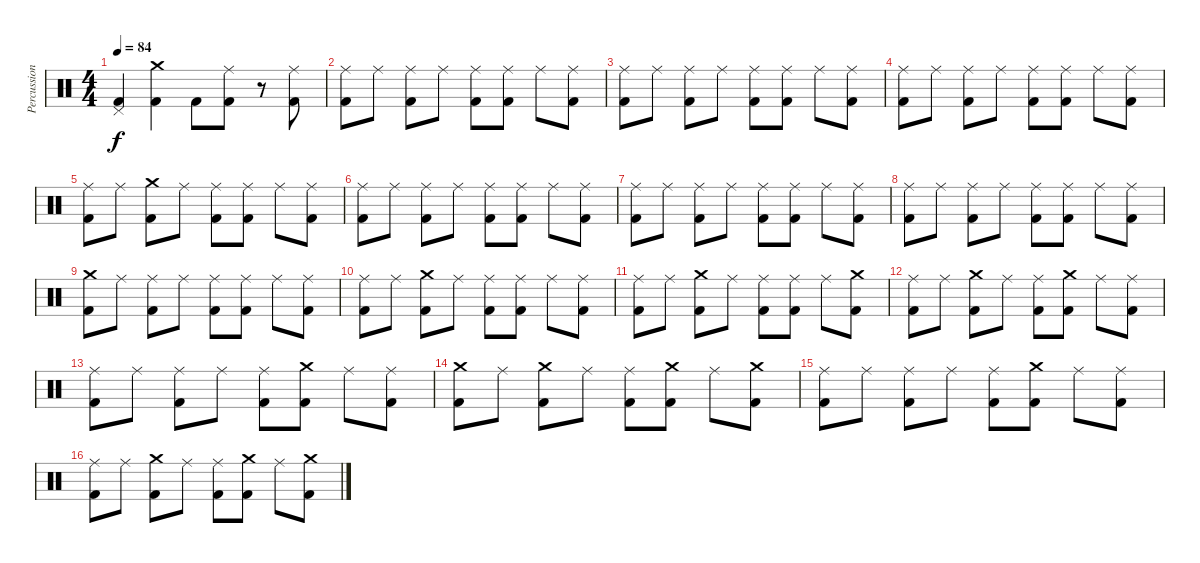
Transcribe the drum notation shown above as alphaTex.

\track ("Percussion" "Percussion") {instrument percussion}
\staff {score}
\articulation defaults
\ts (4 4)
\tempo 84
\clef neutral
\ks c
("Pedal Hi-Hat (hit)" "Kick (hit) 2").4{dy f} ("Crash medium (hit)" "Kick (hit) 2").4 "Kick (hit) 2".8 ("Ride (middle)" "Kick (hit) 2").8 r.8 ("Ride (middle)" "Kick (hit) 2").8 |
("Ride (middle)" "Kick (hit) 2").8 "Ride (middle)".8 ("Ride (middle)" "Kick (hit) 2").8 "Ride (middle)".8 ("Ride (middle)" "Kick (hit) 2").8 ("Ride (middle)" "Kick (hit) 2").8 "Ride (middle)".8 ("Ride (middle)" "Kick (hit) 2").8 |
("Ride (middle)" "Kick (hit) 2").8 "Ride (middle)".8 ("Ride (middle)" "Kick (hit) 2").8 "Ride (middle)".8 ("Ride (middle)" "Kick (hit) 2").8 ("Ride (middle)" "Kick (hit) 2").8 "Ride (middle)".8 ("Ride (middle)" "Kick (hit) 2").8 |
("Ride (middle)" "Kick (hit) 2").8 "Ride (middle)".8 ("Ride (middle)" "Kick (hit) 2").8 "Ride (middle)".8 ("Ride (middle)" "Kick (hit) 2").8 ("Ride (middle)" "Kick (hit) 2").8 "Ride (middle)".8 ("Ride (middle)" "Kick (hit) 2").8 |
("Ride (middle)" "Kick (hit) 2").8 "Ride (middle)".8 ("Crash medium (hit)" "Kick (hit) 2").8 "Ride (middle)".8 ("Ride (middle)" "Kick (hit) 2").8 ("Ride (middle)" "Kick (hit) 2").8 "Ride (middle)".8 ("Ride (middle)" "Kick (hit) 2").8 |
("Ride (middle)" "Kick (hit) 2").8 "Ride (middle)".8 ("Ride (middle)" "Kick (hit) 2").8 "Ride (middle)".8 ("Ride (middle)" "Kick (hit) 2").8 ("Ride (middle)" "Kick (hit) 2").8 "Ride (middle)".8 ("Ride (middle)" "Kick (hit) 2").8 |
("Ride (middle)" "Kick (hit) 2").8 "Ride (middle)".8 ("Ride (middle)" "Kick (hit) 2").8 "Ride (middle)".8 ("Ride (middle)" "Kick (hit) 2").8 ("Ride (middle)" "Kick (hit) 2").8 "Ride (middle)".8 ("Ride (middle)" "Kick (hit) 2").8 |
("Ride (middle)" "Kick (hit) 2").8 "Ride (middle)".8 ("Ride (middle)" "Kick (hit) 2").8 "Ride (middle)".8 ("Ride (middle)" "Kick (hit) 2").8 ("Ride (middle)" "Kick (hit) 2").8 "Ride (middle)".8 ("Ride (middle)" "Kick (hit) 2").8 |
("Crash medium (hit)" "Kick (hit) 2").8 "Ride (middle)".8 ("Ride (middle)" "Kick (hit) 2").8 "Ride (middle)".8 ("Ride (middle)" "Kick (hit) 2").8 ("Ride (middle)" "Kick (hit) 2").8 "Ride (middle)".8 ("Ride (middle)" "Kick (hit) 2").8 |
("Ride (middle)" "Kick (hit) 2").8 "Ride (middle)".8 ("Crash medium (hit)" "Kick (hit) 2").8 "Ride (middle)".8 ("Ride (middle)" "Kick (hit) 2").8 ("Ride (middle)" "Kick (hit) 2").8 "Ride (middle)".8 ("Ride (middle)" "Kick (hit) 2").8 |
("Ride (middle)" "Kick (hit) 2").8 "Ride (middle)".8 ("Crash medium (hit)" "Kick (hit) 2").8 "Ride (middle)".8 ("Ride (middle)" "Kick (hit) 2").8 ("Ride (middle)" "Kick (hit) 2").8 "Ride (middle)".8 ("Crash medium (hit)" "Kick (hit) 2").8 |
("Ride (middle)" "Kick (hit) 2").8 "Ride (middle)".8 ("Crash medium (hit)" "Kick (hit) 2").8 "Ride (middle)".8 ("Ride (middle)" "Kick (hit) 2").8 ("Crash medium (hit)" "Kick (hit) 2").8 "Ride (middle)".8 ("Ride (middle)" "Kick (hit) 2").8 |
("Ride (middle)" "Kick (hit) 2").8 "Ride (middle)".8 ("Ride (middle)" "Kick (hit) 2").8 "Ride (middle)".8 ("Ride (middle)" "Kick (hit) 2").8 ("Crash medium (hit)" "Kick (hit) 2").8 "Ride (middle)".8 ("Ride (middle)" "Kick (hit) 2").8 |
("Crash medium (hit)" "Kick (hit) 2").8 "Ride (middle)".8 ("Crash medium (hit)" "Kick (hit) 2").8 "Ride (middle)".8 ("Ride (middle)" "Kick (hit) 2").8 ("Crash medium (hit)" "Kick (hit) 2").8 "Ride (middle)".8 ("Crash medium (hit)" "Kick (hit) 2").8 |
("Ride (middle)" "Kick (hit) 2").8 "Ride (middle)".8 ("Ride (middle)" "Kick (hit) 2").8 "Ride (middle)".8 ("Ride (middle)" "Kick (hit) 2").8 ("Crash medium (hit)" "Kick (hit) 2").8 "Ride (middle)".8 ("Ride (middle)" "Kick (hit) 2").8 |
("Ride (middle)" "Kick (hit) 2").8 "Ride (middle)".8 ("Crash medium (hit)" "Kick (hit) 2").8 "Ride (middle)".8 ("Ride (middle)" "Kick (hit) 2").8 ("Crash medium (hit)" "Kick (hit) 2").8 "Ride (middle)".8 ("Crash medium (hit)" "Kick (hit) 2").8
